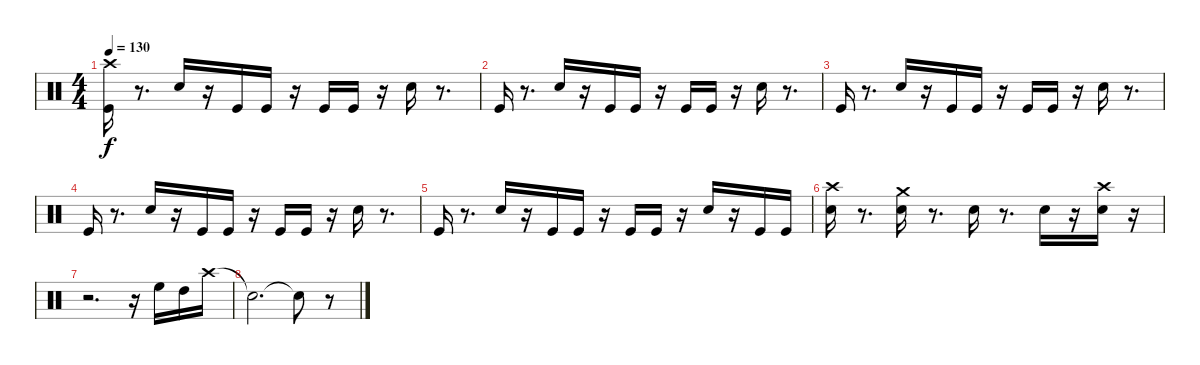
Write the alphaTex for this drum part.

\track "" {instrument percussion}
\staff {score}
\articulation defaults
\ts (4 4)
\tempo 130
\clef neutral
\ks c
("Crash high (hit)" "Kick (hit)").16{dy f} r.8{d} "Snare (hit) 2".16 r.16 "Kick (hit)".16 "Kick (hit)".16 r.16 "Kick (hit)".16 "Kick (hit)".16 r.16 "Snare (hit) 2".16 r.8{d} |
"Kick (hit)".16 r.8{d} "Snare (hit) 2".16 r.16 "Kick (hit)".16 "Kick (hit)".16 r.16 "Kick (hit)".16 "Kick (hit)".16 r.16 "Snare (hit) 2".16 r.8{d} |
"Kick (hit)".16 r.8{d} "Snare (hit) 2".16 r.16 "Kick (hit)".16 "Kick (hit)".16 r.16 "Kick (hit)".16 "Kick (hit)".16 r.16 "Snare (hit) 2".16 r.8{d} |
"Kick (hit)".16 r.8{d} "Snare (hit) 2".16 r.16 "Kick (hit)".16 "Kick (hit)".16 r.16 "Kick (hit)".16 "Kick (hit)".16 r.16 "Snare (hit) 2".16 r.8{d} |
"Kick (hit)".16 r.8{d} "Snare (hit) 2".16 r.16 "Kick (hit)".16 "Kick (hit)".16 r.16 "Kick (hit)".16 "Kick (hit)".16 r.16 "Snare (hit) 2".16 r.16 "Kick (hit)".16 "Kick (hit)".16 |
("Crash high (hit)" "Snare (hit) 2").16 r.8{d} ("Crash medium (hit)" "Snare (hit) 2").16 r.8{d} "Snare (hit) 2".16 r.8{d} "Snare (hit) 2".16 r.16 ("Snare (hit) 2" "Crash high (hit)").16 r.16 |
r.2{d} r.16 "High Floor Tom (hit)".16 "High Tom (hit)".16 "Crash high (hit)".16 |
"Snare (hit)"{t}.2{d} "Snare (hit)"{t}.8 r.8
